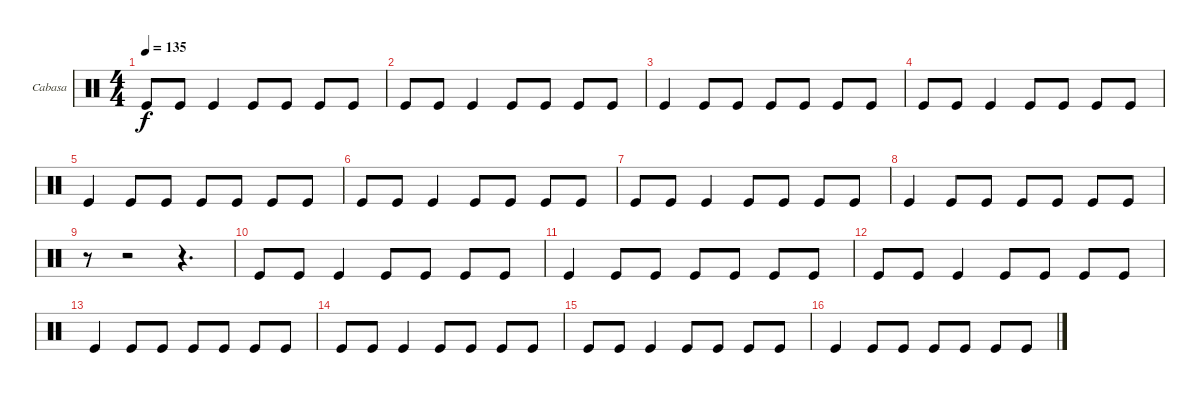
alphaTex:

\bracketExtendMode groupsimilarinstruments
\firstSystemTrackNameOrientation horizontal
\otherSystemsTrackNameOrientation horizontal
\track ("Cabasa" "Cabasa") {instrument percussion}
\staff {score}
\articulation defaults
\ts (4 4)
\tempo 135
\clef neutral
\ks c "Kick (hit)".8{dy f} "Kick (hit)".8 "Kick (hit)".4 "Kick (hit)".8 "Kick (hit)".8 "Kick (hit)".8 "Kick (hit)".8
|
"Kick (hit)".8 "Kick (hit)".8 "Kick (hit)".4 "Kick (hit)".8 "Kick (hit)".8 "Kick (hit)".8 "Kick (hit)".8 |
"Kick (hit)".4 "Kick (hit)".8 "Kick (hit)".8 "Kick (hit)".8 "Kick (hit)".8 "Kick (hit)".8 "Kick (hit)".8 |
"Kick (hit)".8 "Kick (hit)".8 "Kick (hit)".4 "Kick (hit)".8 "Kick (hit)".8 "Kick (hit)".8 "Kick (hit)".8 |
"Kick (hit)".4 "Kick (hit)".8 "Kick (hit)".8 "Kick (hit)".8 "Kick (hit)".8 "Kick (hit)".8 "Kick (hit)".8 |
"Kick (hit)".8 "Kick (hit)".8 "Kick (hit)".4 "Kick (hit)".8 "Kick (hit)".8 "Kick (hit)".8 "Kick (hit)".8 |
"Kick (hit)".8 "Kick (hit)".8 "Kick (hit)".4 "Kick (hit)".8 "Kick (hit)".8 "Kick (hit)".8 "Kick (hit)".8 |
"Kick (hit)".4 "Kick (hit)".8 "Kick (hit)".8 "Kick (hit)".8 "Kick (hit)".8 "Kick (hit)".8 "Kick (hit)".8 |
r.8 r.2 r.4{d} |
"Kick (hit)".8 "Kick (hit)".8 "Kick (hit)".4 "Kick (hit)".8 "Kick (hit)".8 "Kick (hit)".8 "Kick (hit)".8 |
"Kick (hit)".4 "Kick (hit)".8 "Kick (hit)".8 "Kick (hit)".8 "Kick (hit)".8 "Kick (hit)".8 "Kick (hit)".8 |
"Kick (hit)".8 "Kick (hit)".8 "Kick (hit)".4 "Kick (hit)".8 "Kick (hit)".8 "Kick (hit)".8 "Kick (hit)".8 |
"Kick (hit)".4 "Kick (hit)".8 "Kick (hit)".8 "Kick (hit)".8 "Kick (hit)".8 "Kick (hit)".8 "Kick (hit)".8 |
"Kick (hit)".8 "Kick (hit)".8 "Kick (hit)".4 "Kick (hit)".8 "Kick (hit)".8 "Kick (hit)".8 "Kick (hit)".8 |
"Kick (hit)".8 "Kick (hit)".8 "Kick (hit)".4 "Kick (hit)".8 "Kick (hit)".8 "Kick (hit)".8 "Kick (hit)".8 |
"Kick (hit)".4 "Kick (hit)".8 "Kick (hit)".8 "Kick (hit)".8 "Kick (hit)".8 "Kick (hit)".8 "Kick (hit)".8
